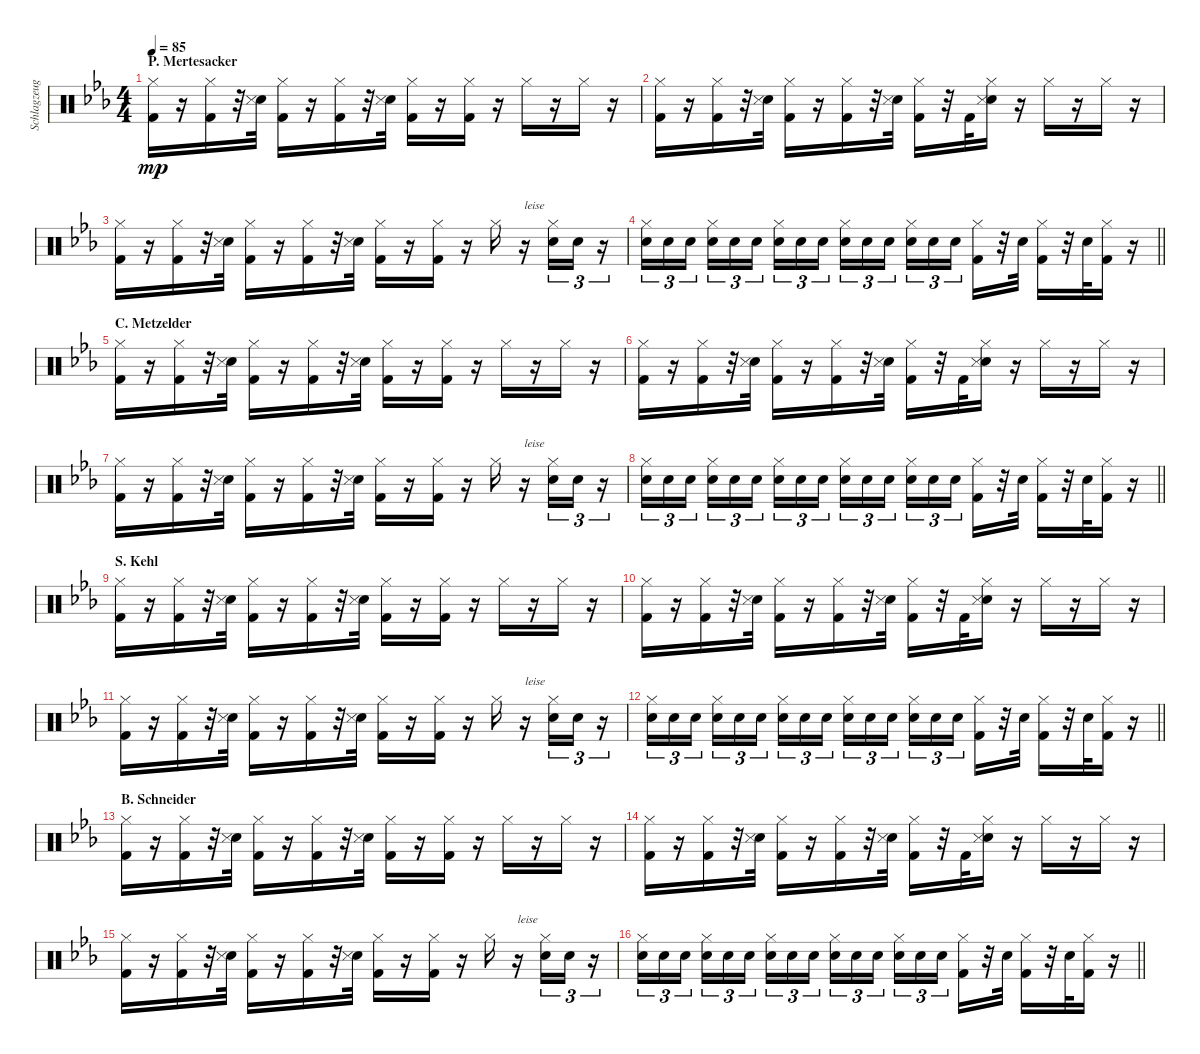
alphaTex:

\track ("Schlagzeug" "Schlagzeug") {instrument percussion}
\staff {score}
\articulation defaults
\ts (4 4)
\section ("" "P. Mertesacker")
\tempo 85
\clef neutral
\ks cminor
("Hi-Hat (closed)" "Kick (hit) 2").16{dy mp} r.16 ("Hi-Hat (closed)" "Kick (hit) 2").16 r.32 ("Electric Snare (hit)" "Snare (side stick) 3").32 ("Hi-Hat (closed)" "Kick (hit) 2").16 r.16 ("Hi-Hat (closed)" "Kick (hit) 2").16 r.32 ("Electric Snare (hit)" "Snare (side stick) 3").32 ("Hi-Hat (closed)" "Kick (hit) 2").16 r.16 ("Hi-Hat (closed)" "Kick (hit) 2").16 r.16 "Hi-Hat (closed)".16 r.16 "Hi-Hat (closed)".16 r.16 |
("Hi-Hat (closed)" "Kick (hit) 2").16 r.16 ("Hi-Hat (closed)" "Kick (hit) 2").16 r.32 ("Electric Snare (hit)" "Snare (side stick) 3").32 ("Hi-Hat (closed)" "Kick (hit) 2").16 r.16 ("Hi-Hat (closed)" "Kick (hit) 2").16 r.32 ("Electric Snare (hit)" "Snare (side stick) 3").32 ("Hi-Hat (closed)" "Kick (hit) 2").16 r.32 "Kick (hit) 2".32 ("Hi-Hat (closed)" "Electric Snare (hit)" "Snare (side stick) 3").16 r.16 "Hi-Hat (closed)".16 r.16 "Hi-Hat (closed)".16 r.16 |
("Hi-Hat (closed)" "Kick (hit) 2").16 r.16 ("Hi-Hat (closed)" "Kick (hit) 2").16 r.32 ("Electric Snare (hit)" "Snare (side stick) 3").32 ("Hi-Hat (closed)" "Kick (hit) 2").16 r.16 ("Hi-Hat (closed)" "Kick (hit) 2").16 r.32 ("Electric Snare (hit)" "Snare (side stick) 3").32 ("Hi-Hat (closed)" "Kick (hit) 2").16 r.16 ("Hi-Hat (closed)" "Kick (hit) 2").16 r.16 "Hi-Hat (closed)".16 r.16{txt "leise" volume 5} ("Hi-Hat (closed)" "Electric Snare (hit)").16{tu (3 2)} "Electric Snare (hit)".16{tu (3 2)} r.16{tu (3 2)} |
\barLineRight lightlight
("Hi-Hat (closed)" "Electric Snare (hit)").16{tu (3 2) volume 15} "Electric Snare (hit)".16{tu (3 2)} "Electric Snare (hit)".16{tu (3 2) beam splitsecondary} ("Hi-Hat (closed)" "Electric Snare (hit)").16{tu (3 2)} "Electric Snare (hit)".16{tu (3 2)} "Electric Snare (hit)".16{tu (3 2)} ("Hi-Hat (closed)" "Electric Snare (hit)").16{tu (3 2)} "Electric Snare (hit)".16{tu (3 2)} "Electric Snare (hit)".16{tu (3 2) beam splitsecondary} ("Hi-Hat (closed)" "Electric Snare (hit)").16{tu (3 2)} "Electric Snare (hit)".16{tu (3 2)} "Electric Snare (hit)".16{tu (3 2)} ("Hi-Hat (closed)" "Electric Snare (hit)").16{tu (3 2)} "Electric Snare (hit)".16{tu (3 2)} "Electric Snare (hit)".16{tu (3 2) beam splitsecondary} ("Hi-Hat (closed)" "Kick (hit) 2").16 r.32 "Electric Snare (hit)".32 ("Hi-Hat (closed)" "Kick (hit) 2").16 r.32 "Electric Snare (hit)".32 ("Hi-Hat (closed)" "Kick (hit) 2").16 r.16 |
\section ("" "C. Metzelder")
("Hi-Hat (closed)" "Kick (hit) 2").16 r.16 ("Hi-Hat (closed)" "Kick (hit) 2").16 r.32 ("Electric Snare (hit)" "Snare (side stick) 3").32 ("Hi-Hat (closed)" "Kick (hit) 2").16 r.16 ("Hi-Hat (closed)" "Kick (hit) 2").16 r.32 ("Electric Snare (hit)" "Snare (side stick) 3").32 ("Hi-Hat (closed)" "Kick (hit) 2").16 r.16 ("Hi-Hat (closed)" "Kick (hit) 2").16 r.16 "Hi-Hat (closed)".16 r.16 "Hi-Hat (closed)".16 r.16 |
("Hi-Hat (closed)" "Kick (hit) 2").16 r.16 ("Hi-Hat (closed)" "Kick (hit) 2").16 r.32 ("Electric Snare (hit)" "Snare (side stick) 3").32 ("Hi-Hat (closed)" "Kick (hit) 2").16 r.16 ("Hi-Hat (closed)" "Kick (hit) 2").16 r.32 ("Electric Snare (hit)" "Snare (side stick) 3").32 ("Hi-Hat (closed)" "Kick (hit) 2").16 r.32 "Kick (hit) 2".32 ("Hi-Hat (closed)" "Electric Snare (hit)" "Snare (side stick) 3").16 r.16 "Hi-Hat (closed)".16 r.16 "Hi-Hat (closed)".16 r.16 |
("Hi-Hat (closed)" "Kick (hit) 2").16 r.16 ("Hi-Hat (closed)" "Kick (hit) 2").16 r.32 ("Electric Snare (hit)" "Snare (side stick) 3").32 ("Hi-Hat (closed)" "Kick (hit) 2").16 r.16 ("Hi-Hat (closed)" "Kick (hit) 2").16 r.32 ("Electric Snare (hit)" "Snare (side stick) 3").32 ("Hi-Hat (closed)" "Kick (hit) 2").16 r.16 ("Hi-Hat (closed)" "Kick (hit) 2").16 r.16 "Hi-Hat (closed)".16 r.16{txt "leise" volume 5} ("Hi-Hat (closed)" "Electric Snare (hit)").16{tu (3 2)} "Electric Snare (hit)".16{tu (3 2)} r.16{tu (3 2)} |
\barLineRight lightlight
("Hi-Hat (closed)" "Electric Snare (hit)").16{tu (3 2) volume 15} "Electric Snare (hit)".16{tu (3 2)} "Electric Snare (hit)".16{tu (3 2) beam splitsecondary} ("Hi-Hat (closed)" "Electric Snare (hit)").16{tu (3 2)} "Electric Snare (hit)".16{tu (3 2)} "Electric Snare (hit)".16{tu (3 2)} ("Hi-Hat (closed)" "Electric Snare (hit)").16{tu (3 2)} "Electric Snare (hit)".16{tu (3 2)} "Electric Snare (hit)".16{tu (3 2) beam splitsecondary} ("Hi-Hat (closed)" "Electric Snare (hit)").16{tu (3 2)} "Electric Snare (hit)".16{tu (3 2)} "Electric Snare (hit)".16{tu (3 2)} ("Hi-Hat (closed)" "Electric Snare (hit)").16{tu (3 2)} "Electric Snare (hit)".16{tu (3 2)} "Electric Snare (hit)".16{tu (3 2) beam splitsecondary} ("Hi-Hat (closed)" "Kick (hit) 2").16 r.32 "Electric Snare (hit)".32 ("Hi-Hat (closed)" "Kick (hit) 2").16 r.32 "Electric Snare (hit)".32 ("Hi-Hat (closed)" "Kick (hit) 2").16 r.16 |
\section ("" "S. Kehl")
("Hi-Hat (closed)" "Kick (hit) 2").16 r.16 ("Hi-Hat (closed)" "Kick (hit) 2").16 r.32 ("Electric Snare (hit)" "Snare (side stick) 3").32 ("Hi-Hat (closed)" "Kick (hit) 2").16 r.16 ("Hi-Hat (closed)" "Kick (hit) 2").16 r.32 ("Electric Snare (hit)" "Snare (side stick) 3").32 ("Hi-Hat (closed)" "Kick (hit) 2").16 r.16 ("Hi-Hat (closed)" "Kick (hit) 2").16 r.16 "Hi-Hat (closed)".16 r.16 "Hi-Hat (closed)".16 r.16 |
("Hi-Hat (closed)" "Kick (hit) 2").16 r.16 ("Hi-Hat (closed)" "Kick (hit) 2").16 r.32 ("Electric Snare (hit)" "Snare (side stick) 3").32 ("Hi-Hat (closed)" "Kick (hit) 2").16 r.16 ("Hi-Hat (closed)" "Kick (hit) 2").16 r.32 ("Electric Snare (hit)" "Snare (side stick) 3").32 ("Hi-Hat (closed)" "Kick (hit) 2").16 r.32 "Kick (hit) 2".32 ("Hi-Hat (closed)" "Electric Snare (hit)" "Snare (side stick) 3").16 r.16 "Hi-Hat (closed)".16 r.16 "Hi-Hat (closed)".16 r.16 |
("Hi-Hat (closed)" "Kick (hit) 2").16 r.16 ("Hi-Hat (closed)" "Kick (hit) 2").16 r.32 ("Electric Snare (hit)" "Snare (side stick) 3").32 ("Hi-Hat (closed)" "Kick (hit) 2").16 r.16 ("Hi-Hat (closed)" "Kick (hit) 2").16 r.32 ("Electric Snare (hit)" "Snare (side stick) 3").32 ("Hi-Hat (closed)" "Kick (hit) 2").16 r.16 ("Hi-Hat (closed)" "Kick (hit) 2").16 r.16 "Hi-Hat (closed)".16 r.16{txt "leise" volume 5} ("Hi-Hat (closed)" "Electric Snare (hit)").16{tu (3 2)} "Electric Snare (hit)".16{tu (3 2)} r.16{tu (3 2)} |
\barLineRight lightlight
("Hi-Hat (closed)" "Electric Snare (hit)").16{tu (3 2) volume 15} "Electric Snare (hit)".16{tu (3 2)} "Electric Snare (hit)".16{tu (3 2) beam splitsecondary} ("Hi-Hat (closed)" "Electric Snare (hit)").16{tu (3 2)} "Electric Snare (hit)".16{tu (3 2)} "Electric Snare (hit)".16{tu (3 2)} ("Hi-Hat (closed)" "Electric Snare (hit)").16{tu (3 2)} "Electric Snare (hit)".16{tu (3 2)} "Electric Snare (hit)".16{tu (3 2) beam splitsecondary} ("Hi-Hat (closed)" "Electric Snare (hit)").16{tu (3 2)} "Electric Snare (hit)".16{tu (3 2)} "Electric Snare (hit)".16{tu (3 2)} ("Hi-Hat (closed)" "Electric Snare (hit)").16{tu (3 2)} "Electric Snare (hit)".16{tu (3 2)} "Electric Snare (hit)".16{tu (3 2) beam splitsecondary} ("Hi-Hat (closed)" "Kick (hit) 2").16 r.32 "Electric Snare (hit)".32 ("Hi-Hat (closed)" "Kick (hit) 2").16 r.32 "Electric Snare (hit)".32 ("Hi-Hat (closed)" "Kick (hit) 2").16 r.16 |
\section ("" "B. Schneider")
("Hi-Hat (closed)" "Kick (hit) 2").16 r.16 ("Hi-Hat (closed)" "Kick (hit) 2").16 r.32 ("Electric Snare (hit)" "Snare (side stick) 3").32 ("Hi-Hat (closed)" "Kick (hit) 2").16 r.16 ("Hi-Hat (closed)" "Kick (hit) 2").16 r.32 ("Electric Snare (hit)" "Snare (side stick) 3").32 ("Hi-Hat (closed)" "Kick (hit) 2").16 r.16 ("Hi-Hat (closed)" "Kick (hit) 2").16 r.16 "Hi-Hat (closed)".16 r.16 "Hi-Hat (closed)".16 r.16 |
("Hi-Hat (closed)" "Kick (hit) 2").16 r.16 ("Hi-Hat (closed)" "Kick (hit) 2").16 r.32 ("Electric Snare (hit)" "Snare (side stick) 3").32 ("Hi-Hat (closed)" "Kick (hit) 2").16 r.16 ("Hi-Hat (closed)" "Kick (hit) 2").16 r.32 ("Electric Snare (hit)" "Snare (side stick) 3").32 ("Hi-Hat (closed)" "Kick (hit) 2").16 r.32 "Kick (hit) 2".32 ("Hi-Hat (closed)" "Electric Snare (hit)" "Snare (side stick) 3").16 r.16 "Hi-Hat (closed)".16 r.16 "Hi-Hat (closed)".16 r.16 |
("Hi-Hat (closed)" "Kick (hit) 2").16 r.16 ("Hi-Hat (closed)" "Kick (hit) 2").16 r.32 ("Electric Snare (hit)" "Snare (side stick) 3").32 ("Hi-Hat (closed)" "Kick (hit) 2").16 r.16 ("Hi-Hat (closed)" "Kick (hit) 2").16 r.32 ("Electric Snare (hit)" "Snare (side stick) 3").32 ("Hi-Hat (closed)" "Kick (hit) 2").16 r.16 ("Hi-Hat (closed)" "Kick (hit) 2").16 r.16 "Hi-Hat (closed)".16 r.16{txt "leise" volume 5} ("Hi-Hat (closed)" "Electric Snare (hit)").16{tu (3 2)} "Electric Snare (hit)".16{tu (3 2)} r.16{tu (3 2)} |
\barLineRight lightlight
("Hi-Hat (closed)" "Electric Snare (hit)").16{tu (3 2) volume 15} "Electric Snare (hit)".16{tu (3 2)} "Electric Snare (hit)".16{tu (3 2) beam splitsecondary} ("Hi-Hat (closed)" "Electric Snare (hit)").16{tu (3 2)} "Electric Snare (hit)".16{tu (3 2)} "Electric Snare (hit)".16{tu (3 2)} ("Hi-Hat (closed)" "Electric Snare (hit)").16{tu (3 2)} "Electric Snare (hit)".16{tu (3 2)} "Electric Snare (hit)".16{tu (3 2) beam splitsecondary} ("Hi-Hat (closed)" "Electric Snare (hit)").16{tu (3 2)} "Electric Snare (hit)".16{tu (3 2)} "Electric Snare (hit)".16{tu (3 2)} ("Hi-Hat (closed)" "Electric Snare (hit)").16{tu (3 2)} "Electric Snare (hit)".16{tu (3 2)} "Electric Snare (hit)".16{tu (3 2) beam splitsecondary} ("Hi-Hat (closed)" "Kick (hit) 2").16 r.32 "Electric Snare (hit)".32 ("Hi-Hat (closed)" "Kick (hit) 2").16 r.32 "Electric Snare (hit)".32 ("Hi-Hat (closed)" "Kick (hit) 2").16 r.16
